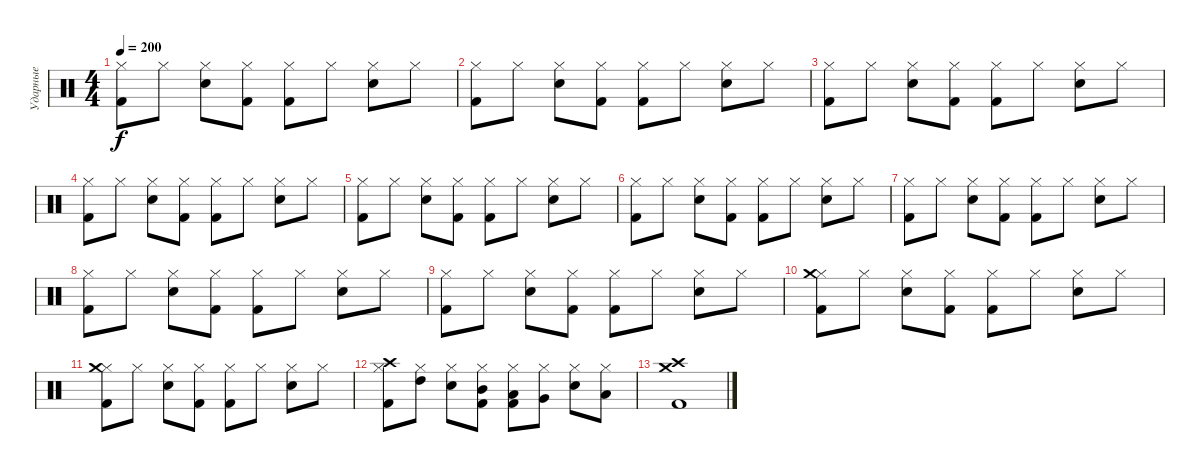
\track ("Ударные" "Ударные") {instrument percussion}
\staff {score}
\articulation defaults
\ts (4 4)
\tempo 200
\clef neutral
\ks c
("Kick (hit) 2" "Hi-Hat (closed)").8{dy f} "Hi-Hat (closed)".8 ("Electric Snare (hit)" "Hi-Hat (closed)").8 ("Kick (hit) 2" "Hi-Hat (closed)").8 ("Kick (hit) 2" "Hi-Hat (closed)").8 "Hi-Hat (closed)".8 ("Electric Snare (hit)" "Hi-Hat (closed)").8 "Hi-Hat (closed)".8 |
("Kick (hit) 2" "Hi-Hat (closed)").8 "Hi-Hat (closed)".8 ("Electric Snare (hit)" "Hi-Hat (closed)").8 ("Kick (hit) 2" "Hi-Hat (closed)").8 ("Kick (hit) 2" "Hi-Hat (closed)").8 "Hi-Hat (closed)".8 ("Electric Snare (hit)" "Hi-Hat (closed)").8 "Hi-Hat (closed)".8 |
("Kick (hit) 2" "Hi-Hat (closed)").8 "Hi-Hat (closed)".8 ("Electric Snare (hit)" "Hi-Hat (closed)").8 ("Kick (hit) 2" "Hi-Hat (closed)").8 ("Kick (hit) 2" "Hi-Hat (closed)").8 "Hi-Hat (closed)".8 ("Electric Snare (hit)" "Hi-Hat (closed)").8 "Hi-Hat (closed)".8 |
("Kick (hit) 2" "Hi-Hat (closed)").8 "Hi-Hat (closed)".8 ("Electric Snare (hit)" "Hi-Hat (closed)").8 ("Kick (hit) 2" "Hi-Hat (closed)").8 ("Kick (hit) 2" "Hi-Hat (closed)").8 "Hi-Hat (closed)".8 ("Electric Snare (hit)" "Hi-Hat (closed)").8 "Hi-Hat (closed)".8 |
("Kick (hit) 2" "Hi-Hat (closed)").8 "Hi-Hat (closed)".8 ("Electric Snare (hit)" "Hi-Hat (closed)").8 ("Kick (hit) 2" "Hi-Hat (closed)").8 ("Kick (hit) 2" "Hi-Hat (closed)").8 "Hi-Hat (closed)".8 ("Electric Snare (hit)" "Hi-Hat (closed)").8 "Hi-Hat (closed)".8 |
("Kick (hit) 2" "Hi-Hat (closed)").8 "Hi-Hat (closed)".8 ("Electric Snare (hit)" "Hi-Hat (closed)").8 ("Kick (hit) 2" "Hi-Hat (closed)").8 ("Kick (hit) 2" "Hi-Hat (closed)").8 "Hi-Hat (closed)".8 ("Electric Snare (hit)" "Hi-Hat (closed)").8 "Hi-Hat (closed)".8 |
("Kick (hit) 2" "Hi-Hat (closed)").8 "Hi-Hat (closed)".8 ("Electric Snare (hit)" "Hi-Hat (closed)").8 ("Kick (hit) 2" "Hi-Hat (closed)").8 ("Kick (hit) 2" "Hi-Hat (closed)").8 "Hi-Hat (closed)".8 ("Electric Snare (hit)" "Hi-Hat (closed)").8 "Hi-Hat (closed)".8 |
("Kick (hit) 2" "Hi-Hat (closed)").8 "Hi-Hat (closed)".8 ("Electric Snare (hit)" "Hi-Hat (closed)").8 ("Kick (hit) 2" "Hi-Hat (closed)").8 ("Kick (hit) 2" "Hi-Hat (closed)").8 "Hi-Hat (closed)".8 ("Electric Snare (hit)" "Hi-Hat (closed)").8 "Hi-Hat (closed)".8 |
("Kick (hit) 2" "Hi-Hat (closed)").8 "Hi-Hat (closed)".8 ("Electric Snare (hit)" "Hi-Hat (closed)").8 ("Kick (hit) 2" "Hi-Hat (closed)").8 ("Kick (hit) 2" "Hi-Hat (closed)").8 "Hi-Hat (closed)".8 ("Electric Snare (hit)" "Hi-Hat (closed)").8 "Hi-Hat (closed)".8 |
("Kick (hit) 2" "Hi-Hat (closed)" "Crash medium (hit)").8 "Hi-Hat (closed)".8 ("Electric Snare (hit)" "Hi-Hat (closed)").8 ("Kick (hit) 2" "Hi-Hat (closed)").8 ("Kick (hit) 2" "Hi-Hat (closed)").8 "Hi-Hat (closed)".8 ("Electric Snare (hit)" "Hi-Hat (closed)").8 "Hi-Hat (closed)".8 |
("Kick (hit) 2" "Hi-Hat (closed)" "Crash medium (hit)").8 "Hi-Hat (closed)".8 ("Electric Snare (hit)" "Hi-Hat (closed)").8 ("Kick (hit) 2" "Hi-Hat (closed)").8 ("Kick (hit) 2" "Hi-Hat (closed)").8 "Hi-Hat (closed)".8 ("Electric Snare (hit)" "Hi-Hat (closed)").8 "Hi-Hat (closed)".8 |
("Kick (hit) 2" "Hi-Hat (closed)" "Crash high (hit)").8 ("Hi-Hat (closed)" "High Tom (hit)").8 ("Electric Snare (hit)" "Hi-Hat (closed)").8 ("Kick (hit) 2" "Hi-Hat (closed)" "Mid Tom (hit)").8 ("Kick (hit) 2" "Hi-Hat (closed)" "Low Tom (hit)").8 ("Hi-Hat (closed)" "Very Low Tom (hit)").8 ("Electric Snare (hit)" "Hi-Hat (closed)").8 ("Hi-Hat (closed)" "Low Floor Tom (hit)").8 |
("Kick (hit) 2" "Crash high (hit)" "Crash medium (hit)").1
